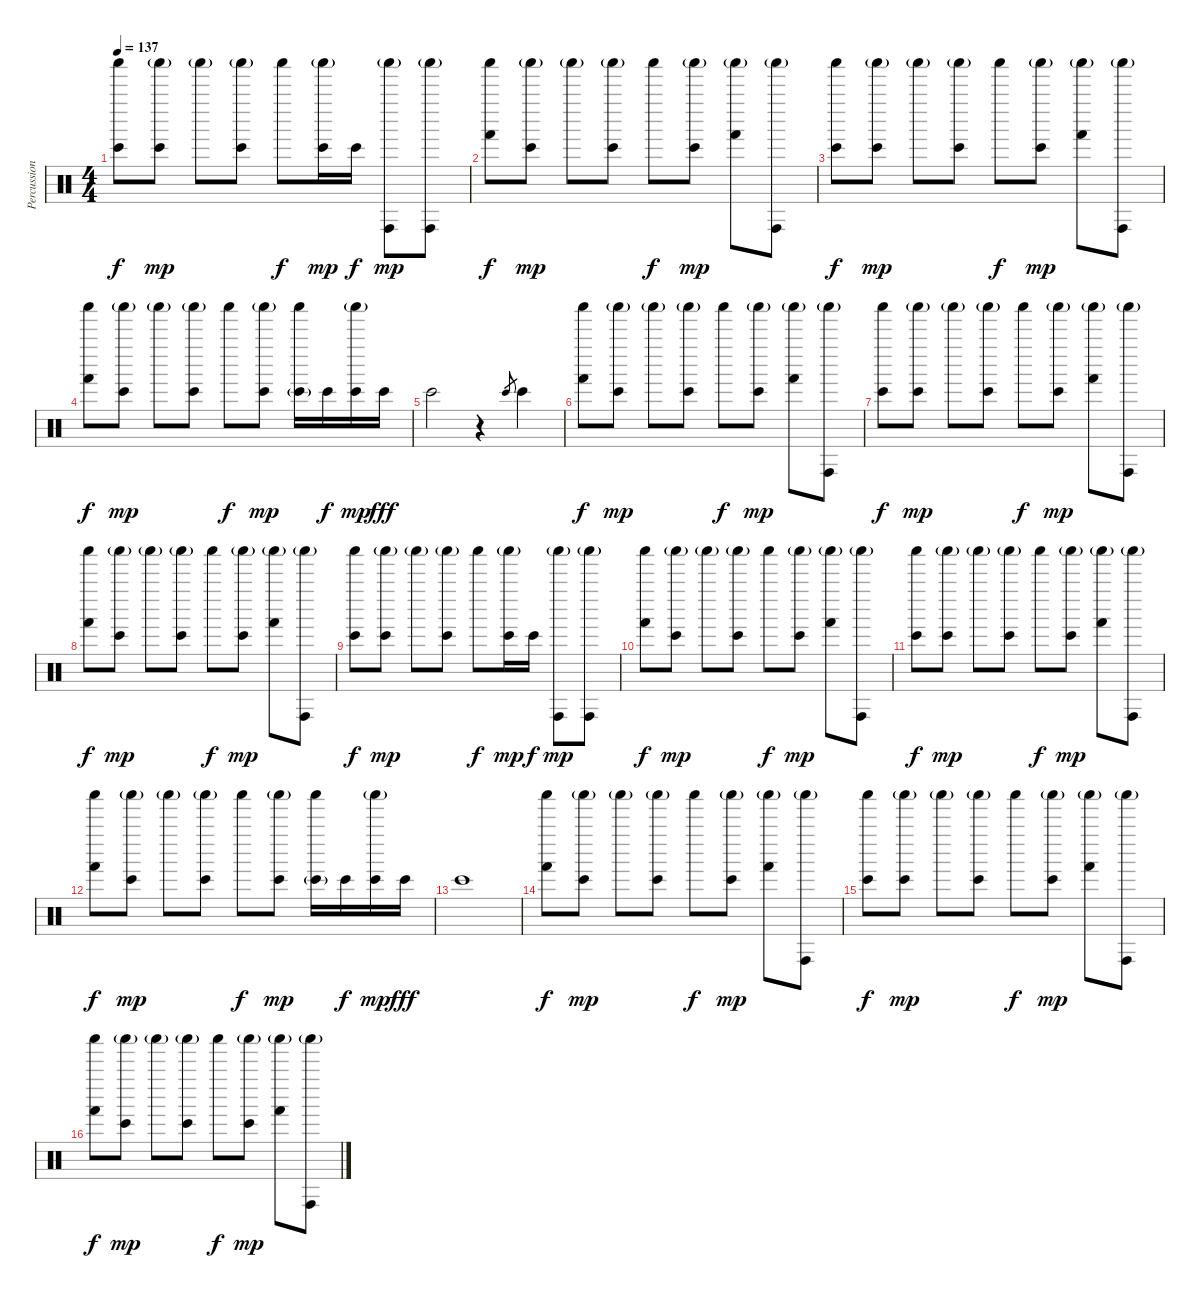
\track ("Percussions" "Percussion") {instrument percussion}
\staff {score}
\articulation defaults
\ts (4 4)
\tempo 137
\clef neutral
\ks c
("Bongo High (hit)" "Shaker (hit)").8{dy f} ("Bongo High (hit)" "Shaker (hit)"{g}).8{dy mp} "Shaker (hit)"{g}.8 ("Bongo High (hit)" "Shaker (hit)"{g}).8 "Shaker (hit)".8{dy f} ("Bongo High (hit)" "Shaker (hit)"{g}).16{dy mp} "Bongo High (hit)".16{dy f} ("Conga high (hit)" "Shaker (hit)"{g}).8{dy mp} ("Conga high (hit)" "Shaker (hit)"{g}).8 |
("Hand (hit)" "Shaker (hit)").8{dy f} ("Bongo High (hit)" "Shaker (hit)"{g}).8{dy mp} "Shaker (hit)"{g}.8 ("Bongo High (hit)" "Shaker (hit)"{g}).8 "Shaker (hit)".8{dy f} ("Bongo High (hit)" "Shaker (hit)"{g}).8{dy mp} ("Hand (hit)" "Shaker (hit)"{g}).8 ("Conga high (hit)" "Shaker (hit)"{g}).8 |
("Bongo High (hit)" "Shaker (hit)").8{dy f} ("Bongo High (hit)" "Shaker (hit)"{g}).8{dy mp} "Shaker (hit)"{g}.8 ("Bongo High (hit)" "Shaker (hit)"{g}).8 "Shaker (hit)".8{dy f} ("Bongo High (hit)" "Shaker (hit)"{g}).8{dy mp} ("Hand (hit)" "Shaker (hit)"{g}).8 ("Conga high (hit)" "Shaker (hit)"{g}).8 |
("Hand (hit)" "Shaker (hit)").8{dy f} ("Bongo High (hit)" "Shaker (hit)"{g}).8{dy mp} "Shaker (hit)"{g}.8 ("Bongo High (hit)" "Shaker (hit)"{g}).8 "Shaker (hit)".8{dy f} ("Bongo High (hit)" "Shaker (hit)"{g}).8{dy mp} ("Bongo High (hit)"{g} "Shaker (hit)").16 "Bongo High (hit)".16{dy f} ("Bongo High (hit)" "Shaker (hit)"{g}).16{dy mp} "Bongo High (hit)".16{dy fff} |
"Bongo High (hit)".2 r.4 "Bongo High (hit)".8{gr} "Bongo High (hit)".4 |
("Hand (hit)" "Shaker (hit)").8{dy f} ("Bongo High (hit)" "Shaker (hit)"{g}).8{dy mp} "Shaker (hit)"{g}.8 ("Bongo High (hit)" "Shaker (hit)"{g}).8 "Shaker (hit)".8{dy f} ("Bongo High (hit)" "Shaker (hit)"{g}).8{dy mp} ("Hand (hit)" "Shaker (hit)"{g}).8 ("Conga high (hit)" "Shaker (hit)"{g}).8 |
("Bongo High (hit)" "Shaker (hit)").8{dy f} ("Bongo High (hit)" "Shaker (hit)"{g}).8{dy mp} "Shaker (hit)"{g}.8 ("Bongo High (hit)" "Shaker (hit)"{g}).8 "Shaker (hit)".8{dy f} ("Bongo High (hit)" "Shaker (hit)"{g}).8{dy mp} ("Hand (hit)" "Shaker (hit)"{g}).8 ("Conga high (hit)" "Shaker (hit)"{g}).8 |
("Hand (hit)" "Shaker (hit)").8{dy f} ("Bongo High (hit)" "Shaker (hit)"{g}).8{dy mp} "Shaker (hit)"{g}.8 ("Bongo High (hit)" "Shaker (hit)"{g}).8 "Shaker (hit)".8{dy f} ("Bongo High (hit)" "Shaker (hit)"{g}).8{dy mp} ("Hand (hit)" "Shaker (hit)"{g}).8 ("Conga high (hit)" "Shaker (hit)"{g}).8 |
("Bongo High (hit)" "Shaker (hit)").8{dy f} ("Bongo High (hit)" "Shaker (hit)"{g}).8{dy mp} "Shaker (hit)"{g}.8 ("Bongo High (hit)" "Shaker (hit)"{g}).8 "Shaker (hit)".8{dy f} ("Bongo High (hit)" "Shaker (hit)"{g}).16{dy mp} "Bongo High (hit)".16{dy f} ("Conga high (hit)" "Shaker (hit)"{g}).8{dy mp} ("Conga high (hit)" "Shaker (hit)"{g}).8 |
("Hand (hit)" "Shaker (hit)").8{dy f} ("Bongo High (hit)" "Shaker (hit)"{g}).8{dy mp} "Shaker (hit)"{g}.8 ("Bongo High (hit)" "Shaker (hit)"{g}).8 "Shaker (hit)".8{dy f} ("Bongo High (hit)" "Shaker (hit)"{g}).8{dy mp} ("Hand (hit)" "Shaker (hit)"{g}).8 ("Conga high (hit)" "Shaker (hit)"{g}).8 |
("Bongo High (hit)" "Shaker (hit)").8{dy f} ("Bongo High (hit)" "Shaker (hit)"{g}).8{dy mp} "Shaker (hit)"{g}.8 ("Bongo High (hit)" "Shaker (hit)"{g}).8 "Shaker (hit)".8{dy f} ("Bongo High (hit)" "Shaker (hit)"{g}).8{dy mp} ("Hand (hit)" "Shaker (hit)"{g}).8 ("Conga high (hit)" "Shaker (hit)"{g}).8 |
("Hand (hit)" "Shaker (hit)").8{dy f} ("Bongo High (hit)" "Shaker (hit)"{g}).8{dy mp} "Shaker (hit)"{g}.8 ("Bongo High (hit)" "Shaker (hit)"{g}).8 "Shaker (hit)".8{dy f} ("Bongo High (hit)" "Shaker (hit)"{g}).8{dy mp} ("Bongo High (hit)"{g} "Shaker (hit)").16 "Bongo High (hit)".16{dy f} ("Bongo High (hit)" "Shaker (hit)"{g}).16{dy mp} "Bongo High (hit)".16{dy fff} |
"Bongo High (hit)".1 |
("Hand (hit)" "Shaker (hit)").8{dy f} ("Bongo High (hit)" "Shaker (hit)"{g}).8{dy mp} "Shaker (hit)"{g}.8 ("Bongo High (hit)" "Shaker (hit)"{g}).8 "Shaker (hit)".8{dy f} ("Bongo High (hit)" "Shaker (hit)"{g}).8{dy mp} ("Hand (hit)" "Shaker (hit)"{g}).8 ("Conga high (hit)" "Shaker (hit)"{g}).8 |
("Bongo High (hit)" "Shaker (hit)").8{dy f} ("Bongo High (hit)" "Shaker (hit)"{g}).8{dy mp} "Shaker (hit)"{g}.8 ("Bongo High (hit)" "Shaker (hit)"{g}).8 "Shaker (hit)".8{dy f} ("Bongo High (hit)" "Shaker (hit)"{g}).8{dy mp} ("Hand (hit)" "Shaker (hit)"{g}).8 ("Conga high (hit)" "Shaker (hit)"{g}).8 |
("Hand (hit)" "Shaker (hit)").8{dy f} ("Bongo High (hit)" "Shaker (hit)"{g}).8{dy mp} "Shaker (hit)"{g}.8 ("Bongo High (hit)" "Shaker (hit)"{g}).8 "Shaker (hit)".8{dy f} ("Bongo High (hit)" "Shaker (hit)"{g}).8{dy mp} ("Hand (hit)" "Shaker (hit)"{g}).8 ("Conga high (hit)" "Shaker (hit)"{g}).8
